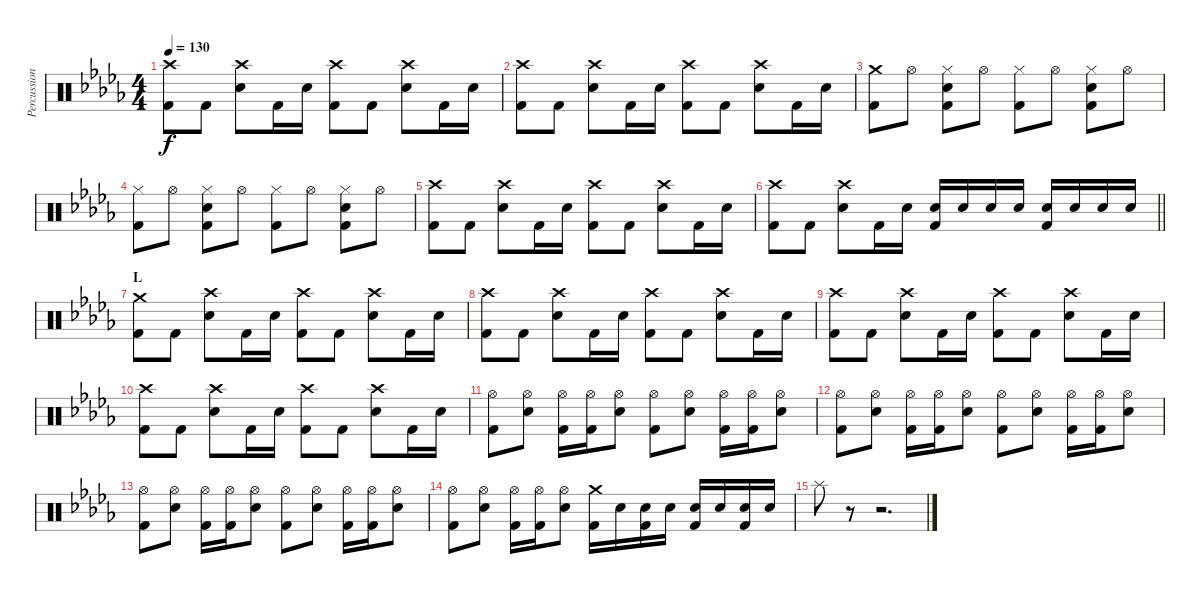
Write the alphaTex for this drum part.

\track ("Percussion" "Percussion") {instrument percussion}
\staff {score}
\articulation defaults
\ts (4 4)
\tempo 130
\clef neutral
\ks db
("Crash high (hit)" "Kick (hit) 2").8{dy f} "Kick (hit) 2".8 ("Crash high (hit)" "Electric Snare (hit)").8 "Kick (hit) 2".16 "Electric Snare (hit)".16 ("Crash high (hit)" "Kick (hit) 2").8 "Kick (hit) 2".8 ("Crash high (hit)" "Electric Snare (hit)").8 "Kick (hit) 2".16 "Electric Snare (hit)".16 |
("Crash high (hit)" "Kick (hit) 2").8 "Kick (hit) 2".8 ("Crash high (hit)" "Electric Snare (hit)").8 "Kick (hit) 2".16 "Electric Snare (hit)".16 ("Crash high (hit)" "Kick (hit) 2").8 "Kick (hit) 2".8 ("Crash high (hit)" "Electric Snare (hit)").8 "Kick (hit) 2".16 "Electric Snare (hit)".16 |
("Crash medium (hit)" "Kick (hit) 2").8 "Hi-Hat (open)".8 ("Hi-Hat (closed)" "Electric Snare (hit)" "Kick (hit) 2").8 "Hi-Hat (open)".8 ("Hi-Hat (closed)" "Kick (hit) 2").8 "Hi-Hat (open)".8 ("Hi-Hat (closed)" "Electric Snare (hit)" "Kick (hit) 2").8 "Hi-Hat (open)".8 |
("Hi-Hat (closed)" "Kick (hit) 2").8 "Hi-Hat (open)".8 ("Hi-Hat (closed)" "Electric Snare (hit)" "Kick (hit) 2").8 "Hi-Hat (open)".8 ("Hi-Hat (closed)" "Kick (hit) 2").8 "Hi-Hat (open)".8 ("Hi-Hat (closed)" "Electric Snare (hit)" "Kick (hit) 2").8 "Hi-Hat (open)".8 |
("Crash high (hit)" "Kick (hit) 2").8 "Kick (hit) 2".8 ("Crash high (hit)" "Electric Snare (hit)").8 "Kick (hit) 2".16 "Electric Snare (hit)".16 ("Crash high (hit)" "Kick (hit) 2").8 "Kick (hit) 2".8 ("Crash high (hit)" "Electric Snare (hit)").8 "Kick (hit) 2".16 "Electric Snare (hit)".16 |
\barLineRight lightlight
("Crash high (hit)" "Kick (hit) 2").8 "Kick (hit) 2".8 ("Crash high (hit)" "Electric Snare (hit)").8 "Kick (hit) 2".16 "Electric Snare (hit)".16 ("Electric Snare (hit)" "Kick (hit) 2").16 "Electric Snare (hit)".16 "Electric Snare (hit)".16 "Electric Snare (hit)".16 ("Electric Snare (hit)" "Kick (hit) 2").16 "Electric Snare (hit)".16 "Electric Snare (hit)".16 "Electric Snare (hit)".16 |
\section ("" "L")
("Crash medium (hit)" "Kick (hit) 2").8 "Kick (hit) 2".8 ("Crash high (hit)" "Electric Snare (hit)").8 "Kick (hit) 2".16 "Electric Snare (hit)".16 ("Crash high (hit)" "Kick (hit) 2").8 "Kick (hit) 2".8 ("Crash high (hit)" "Electric Snare (hit)").8 "Kick (hit) 2".16 "Electric Snare (hit)".16 |
("Crash high (hit)" "Kick (hit) 2").8 "Kick (hit) 2".8 ("Crash high (hit)" "Electric Snare (hit)").8 "Kick (hit) 2".16 "Electric Snare (hit)".16 ("Crash high (hit)" "Kick (hit) 2").8 "Kick (hit) 2".8 ("Crash high (hit)" "Electric Snare (hit)").8 "Kick (hit) 2".16 "Electric Snare (hit)".16 |
("Crash high (hit)" "Kick (hit) 2").8 "Kick (hit) 2".8 ("Crash high (hit)" "Electric Snare (hit)").8 "Kick (hit) 2".16 "Electric Snare (hit)".16 ("Crash high (hit)" "Kick (hit) 2").8 "Kick (hit) 2".8 ("Crash high (hit)" "Electric Snare (hit)").8 "Kick (hit) 2".16 "Electric Snare (hit)".16 |
("Crash high (hit)" "Kick (hit) 2").8 "Kick (hit) 2".8 ("Crash high (hit)" "Electric Snare (hit)").8 "Kick (hit) 2".16 "Electric Snare (hit)".16 ("Crash high (hit)" "Kick (hit) 2").8 "Kick (hit) 2".8 ("Crash high (hit)" "Electric Snare (hit)").8 "Kick (hit) 2".16 "Electric Snare (hit)".16 |
("Hi-Hat (open)" "Kick (hit) 2").8 ("Hi-Hat (open)" "Electric Snare (hit)").8 ("Hi-Hat (open)" "Kick (hit) 2").16 ("Hi-Hat (open)" "Kick (hit) 2").16 ("Hi-Hat (open)" "Electric Snare (hit)").8 ("Hi-Hat (open)" "Kick (hit) 2").8 ("Hi-Hat (open)" "Electric Snare (hit)").8 ("Hi-Hat (open)" "Kick (hit) 2").16 ("Hi-Hat (open)" "Kick (hit) 2").16 ("Hi-Hat (open)" "Electric Snare (hit)").8 |
("Hi-Hat (open)" "Kick (hit) 2").8 ("Hi-Hat (open)" "Electric Snare (hit)").8 ("Hi-Hat (open)" "Kick (hit) 2").16 ("Hi-Hat (open)" "Kick (hit) 2").16 ("Hi-Hat (open)" "Electric Snare (hit)").8 ("Hi-Hat (open)" "Kick (hit) 2").8 ("Hi-Hat (open)" "Electric Snare (hit)").8 ("Hi-Hat (open)" "Kick (hit) 2").16 ("Hi-Hat (open)" "Kick (hit) 2").16 ("Hi-Hat (open)" "Electric Snare (hit)").8 |
("Hi-Hat (open)" "Kick (hit) 2").8 ("Hi-Hat (open)" "Electric Snare (hit)").8 ("Hi-Hat (open)" "Kick (hit) 2").16 ("Hi-Hat (open)" "Kick (hit) 2").16 ("Hi-Hat (open)" "Electric Snare (hit)").8 ("Hi-Hat (open)" "Kick (hit) 2").8 ("Hi-Hat (open)" "Electric Snare (hit)").8 ("Hi-Hat (open)" "Kick (hit) 2").16 ("Hi-Hat (open)" "Kick (hit) 2").16 ("Hi-Hat (open)" "Electric Snare (hit)").8 |
("Hi-Hat (open)" "Kick (hit) 2").8 ("Hi-Hat (open)" "Electric Snare (hit)").8 ("Hi-Hat (open)" "Kick (hit) 2").16 ("Hi-Hat (open)" "Kick (hit) 2").16 ("Hi-Hat (open)" "Electric Snare (hit)").8 ("Crash medium (hit)" "Kick (hit) 2").16 "Electric Snare (hit)".16 ("Electric Snare (hit)" "Kick (hit) 2").16 "Electric Snare (hit)".16 ("Electric Snare (hit)" "Kick (hit) 2").16 "Electric Snare (hit)".16 ("Electric Snare (hit)" "Kick (hit) 2").16 "Electric Snare (hit)".16 |
"Splash (hit)".8 r.8 r.2{d}
